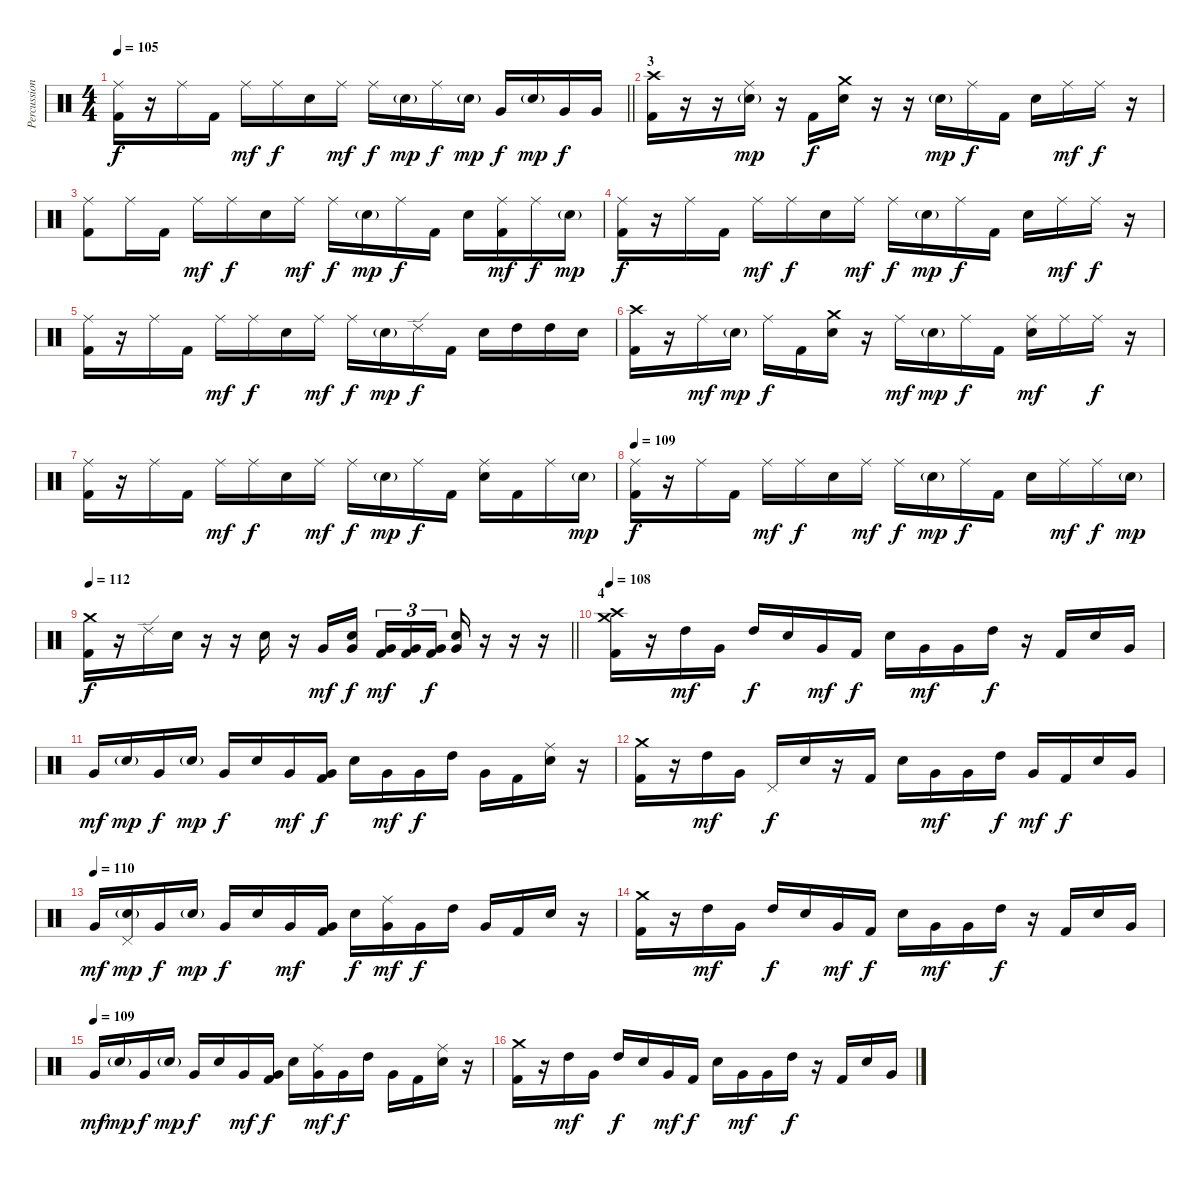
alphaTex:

\track ("Percussion" "Percussion") {instrument percussion}
\staff {score}
\articulation defaults
\ts (4 4)
\tempo 105
\clef neutral
\barLineRight lightlight
\ks c
("Ride (middle)" "Kick (hit) 2").16{dy f} r.16 "Ride (middle)".16 "Kick (hit) 2".16 "Ride (middle)".16{dy mf} "Ride (middle)".16{dy f} "Snare (hit) 2".16 "Ride (middle)".16{dy mf} "Ride (middle)".16{dy f} "Snare (hit) 2"{g}.16{dy mp} "Ride (middle)".16{dy f} "Snare (hit) 2"{g}.16{dy mp} "Very Low Tom (hit)".16{dy f} "Snare (hit) 2"{g}.16{dy mp} "Very Low Tom (hit)".16{dy f} "Very Low Tom (hit)".16 |
\section ("" "3")
("Crash high (hit)" "Kick (hit) 2").16 r.16 r.16 ("Ride (middle)" "Snare (hit) 2"{g}).16{dy mp} r.16 "Kick (hit) 2".16{dy f} ("Crash medium (hit)" "Snare (hit) 2").16 r.16 r.16 "Snare (hit) 2"{g}.16{dy mp} "Ride (middle)".16{dy f} "Kick (hit) 2".16 "Snare (hit) 2".16 "Ride (middle)".16{dy mf} "Ride (middle)".16{dy f} r.16 |
("Ride (middle)" "Kick (hit) 2").8 "Ride (middle)".16 "Kick (hit) 2".16 "Ride (middle)".16{dy mf} "Ride (middle)".16{dy f} "Snare (hit) 2".16 "Ride (middle)".16{dy mf} "Ride (middle)".16{dy f} "Snare (hit) 2"{g}.16{dy mp} "Ride (middle)".16{dy f} "Kick (hit) 2".16 "Snare (hit) 2".16 ("Ride (middle)" "Kick (hit) 2").16{dy mf} "Ride (middle)".16{dy f} "Snare (hit) 2"{g}.16{dy mp} |
("Ride (middle)" "Kick (hit) 2").16{dy f} r.16 "Ride (middle)".16 "Kick (hit) 2".16 "Ride (middle)".16{dy mf} "Ride (middle)".16{dy f} "Snare (hit) 2".16 "Ride (middle)".16{dy mf} "Ride (middle)".16{dy f} "Snare (hit) 2"{g}.16{dy mp} "Ride (middle)".16{dy f} "Kick (hit) 2".16 "Snare (hit) 2".16 "Ride (middle)".16{dy mf} "Ride (middle)".16{dy f} r.16 |
("Ride (middle)" "Kick (hit) 2").16 r.16 "Ride (middle)".16 "Kick (hit) 2".16 "Ride (middle)".16{dy mf} "Ride (middle)".16{dy f} "Snare (hit) 2".16 "Ride (middle)".16{dy mf} "Ride (middle)".16{dy f} "Snare (hit) 2"{g}.16{dy mp} "Ride (edge) 2".16{dy f} "Kick (hit) 2".16 "Snare (hit) 2".16 "High Tom (hit)".16 "High Tom (hit)".16 "Snare (hit) 2".16 |
("Crash high (hit)" "Kick (hit) 2").16 r.16 "Ride (middle)".16{dy mf} "Snare (hit) 2"{g}.16{dy mp} "Ride (middle)".16{dy f} "Kick (hit) 2".16 ("Crash medium (hit)" "Snare (hit) 2").16 r.16 "Ride (middle)".16{dy mf} "Snare (hit) 2"{g}.16{dy mp} "Ride (middle)".16{dy f} "Kick (hit) 2".16 ("Ride (middle)" "Snare (hit) 2").16{dy mf} "Ride (middle)".16 "Ride (middle)".16{dy f} r.16 |
("Ride (middle)" "Kick (hit) 2").16 r.16 "Ride (middle)".16 "Kick (hit) 2".16 "Ride (middle)".16{dy mf} "Ride (middle)".16{dy f} "Snare (hit) 2".16 "Ride (middle)".16{dy mf} "Ride (middle)".16{dy f} "Snare (hit) 2"{g}.16{dy mp} "Ride (middle)".16{dy f} "Kick (hit) 2".16 ("Ride (middle)" "Snare (hit) 2").16 "Kick (hit) 2".16 "Ride (middle)".16 "Snare (hit) 2"{g}.16{dy mp} |
\tempo 109
("Ride (middle)" "Kick (hit) 2").16{dy f} r.16 "Ride (middle)".16 "Kick (hit) 2".16 "Ride (middle)".16{dy mf} "Ride (middle)".16{dy f} "Snare (hit) 2".16 "Ride (middle)".16{dy mf} "Ride (middle)".16{dy f} "Snare (hit) 2"{g}.16{dy mp} "Ride (middle)".16{dy f} "Kick (hit) 2".16 "Snare (hit) 2".16 "Ride (middle)".16{dy mf} "Ride (middle)".16{dy f} "Snare (hit) 2"{g}.16{dy mp} |
\tempo 112
\barLineRight lightlight
("Crash medium (hit)" "Kick (hit) 2").16{dy f} r.16 "Ride (edge) 2".16 "Snare (hit) 2".16 r.16 r.16 "Snare (hit) 2".16 r.16 "Very Low Tom (hit)".16{dy mf} ("Snare (hit) 2" "Very Low Tom (hit)").16{bu 60 dy f beam splitsecondary} ("Very Low Tom (hit)" "Kick (hit) 2").16{tu (3 2) dy mf} ("Very Low Tom (hit)" "Kick (hit) 2").16{tu (3 2)} ("Very Low Tom (hit)" "Kick (hit) 2").16{tu (3 2) dy f} ("Snare (hit) 2" "Very Low Tom (hit)").16{bu 60} r.16 r.16 r.16 |
\section ("" "4")
\tempo 108
("Crash high (hit)" "Crash medium (hit)" "Kick (hit) 2").16 r.16 "High Tom (hit)".16{dy mf} "Very Low Tom (hit)".16 "High Tom (hit)".16{dy f} "Snare (hit) 2".16 "Very Low Tom (hit)".16{dy mf} "Kick (hit) 2".16{dy f} "Snare (hit) 2".16 "Very Low Tom (hit)".16{dy mf} "Very Low Tom (hit)".16 "High Tom (hit)".16{dy f} r.16 "Kick (hit) 2".16 "Snare (hit) 2".16 "Very Low Tom (hit)".16 |
"Very Low Tom (hit)".16{dy mf} "Snare (hit) 2"{g}.16{dy mp} "Very Low Tom (hit)".16{dy f} "Snare (hit) 2"{g}.16{dy mp} "Very Low Tom (hit)".16{dy f} "Snare (hit) 2".16 "Very Low Tom (hit)".16{dy mf} ("Very Low Tom (hit)" "Kick (hit) 2").16{dy f} "Snare (hit) 2".16 "Very Low Tom (hit)".16{dy mf} "Very Low Tom (hit)".16{dy f} "High Tom (hit)".16 "Very Low Tom (hit)".16 "Kick (hit) 2".16 ("Ride (middle)" "Snare (hit) 2").16 r.16 |
("Crash medium (hit)" "Kick (hit) 2").16 r.16 "High Tom (hit)".16{dy mf} "Very Low Tom (hit)".16 "Pedal Hi-Hat (hit)".16{dy f} "Snare (hit) 2".16 r.16 "Kick (hit) 2".16 "Snare (hit) 2".16 "Very Low Tom (hit)".16{dy mf} "Very Low Tom (hit)".16 "High Tom (hit)".16{dy f} "Very Low Tom (hit)".16{dy mf} "Kick (hit) 2".16{dy f} "Snare (hit) 2".16 "Very Low Tom (hit)".16 |
\tempo (110)
"Very Low Tom (hit)".16{dy mf} ("Pedal Hi-Hat (hit)" "Snare (hit) 2"{g}).16{dy mp} "Very Low Tom (hit)".16{dy f} "Snare (hit) 2"{g}.16{dy mp} "Very Low Tom (hit)".16{dy f} "Snare (hit) 2".16 "Very Low Tom (hit)".16{dy mf} ("Very Low Tom (hit)" "Kick (hit) 2").16 "Snare (hit) 2".16{dy f} ("Ride (middle)" "Very Low Tom (hit)").16{dy mf} "Very Low Tom (hit)".16{dy f} "High Tom (hit)".16 "Very Low Tom (hit)".16 "Kick (hit) 2".16 "Snare (hit) 2".16 r.16 |
("Crash medium (hit)" "Kick (hit) 2").16 r.16 "High Tom (hit)".16{dy mf} "Very Low Tom (hit)".16 "High Tom (hit)".16{dy f} "Snare (hit) 2".16 "Very Low Tom (hit)".16{dy mf} "Kick (hit) 2".16{dy f} "Snare (hit) 2".16 "Very Low Tom (hit)".16{dy mf} "Very Low Tom (hit)".16 "High Tom (hit)".16{dy f} r.16 "Kick (hit) 2".16 "Snare (hit) 2".16 "Very Low Tom (hit)".16 |
\tempo (109)
"Very Low Tom (hit)".16{dy mf} "Snare (hit) 2"{g}.16{dy mp} "Very Low Tom (hit)".16{dy f} "Snare (hit) 2"{g}.16{dy mp} "Very Low Tom (hit)".16{dy f} "Snare (hit) 2".16 "Very Low Tom (hit)".16{dy mf} ("Very Low Tom (hit)" "Kick (hit) 2").16{dy f} "Snare (hit) 2".16 ("Ride (middle)" "Very Low Tom (hit)").16{dy mf} "Very Low Tom (hit)".16{dy f} "High Tom (hit)".16 "Very Low Tom (hit)".16 "Kick (hit) 2".16 ("Ride (middle)" "Snare (hit) 2").16 r.16 |
("Crash medium (hit)" "Kick (hit) 2").16 r.16 "High Tom (hit)".16{dy mf} "Very Low Tom (hit)".16 "High Tom (hit)".16{dy f} "Snare (hit) 2".16 "Very Low Tom (hit)".16{dy mf} "Kick (hit) 2".16{dy f} "Snare (hit) 2".16 "Very Low Tom (hit)".16{dy mf} "Very Low Tom (hit)".16 "High Tom (hit)".16{dy f} r.16 "Kick (hit) 2".16 "Snare (hit) 2".16 "Very Low Tom (hit)".16
